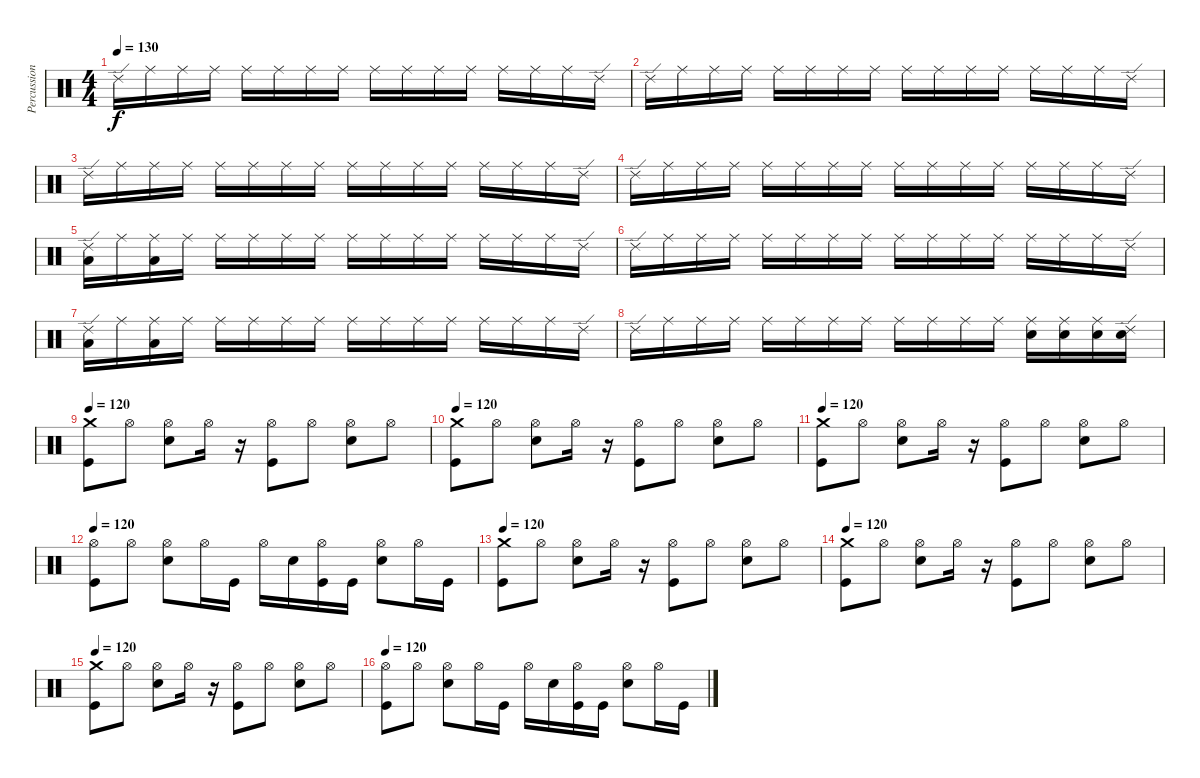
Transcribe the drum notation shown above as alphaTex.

\track ("Percussion" "Percussion") {instrument percussion}
\staff {score}
\articulation defaults
\ts (4 4)
\tempo 130
\clef neutral
\ks c "Ride (edge) 2".16{dy f} "Ride (middle)".16 "Ride (middle)".16 "Ride (middle)".16 "Ride (middle)".16 "Ride (middle)".16 "Ride (middle)".16 "Ride (middle)".16 "Ride (middle)".16 "Ride (middle)".16 "Ride (middle)".16 "Ride (middle)".16 "Ride (middle)".16 "Ride (middle)".16 "Ride (middle)".16 "Ride (edge) 2".16
|
"Ride (edge) 2".16 "Ride (middle)".16 "Ride (middle)".16 "Ride (middle)".16 "Ride (middle)".16 "Ride (middle)".16 "Ride (middle)".16 "Ride (middle)".16 "Ride (middle)".16 "Ride (middle)".16 "Ride (middle)".16 "Ride (middle)".16 "Ride (middle)".16 "Ride (middle)".16 "Ride (middle)".16 "Ride (edge) 2".16 |
"Ride (edge) 2".16 "Ride (middle)".16 "Ride (middle)".16 "Ride (middle)".16 "Ride (middle)".16 "Ride (middle)".16 "Ride (middle)".16 "Ride (middle)".16 "Ride (middle)".16 "Ride (middle)".16 "Ride (middle)".16 "Ride (middle)".16 "Ride (middle)".16 "Ride (middle)".16 "Ride (middle)".16 "Ride (edge) 2".16 |
"Ride (edge) 2".16 "Ride (middle)".16 "Ride (middle)".16 "Ride (middle)".16 "Ride (middle)".16 "Ride (middle)".16 "Ride (middle)".16 "Ride (middle)".16 "Ride (middle)".16 "Ride (middle)".16 "Ride (middle)".16 "Ride (middle)".16 "Ride (middle)".16 "Ride (middle)".16 "Ride (middle)".16 "Ride (edge) 2".16 |
("Low Floor Tom (hit)" "Ride (edge) 2").16 "Ride (middle)".16 ("Low Floor Tom (hit)" "Ride (middle)").16 "Ride (middle)".16 "Ride (middle)".16 "Ride (middle)".16 "Ride (middle)".16 "Ride (middle)".16 "Ride (middle)".16 "Ride (middle)".16 "Ride (middle)".16 "Ride (middle)".16 "Ride (middle)".16 "Ride (middle)".16 "Ride (middle)".16 "Ride (edge) 2".16 |
"Ride (edge) 2".16 "Ride (middle)".16 "Ride (middle)".16 "Ride (middle)".16 "Ride (middle)".16 "Ride (middle)".16 "Ride (middle)".16 "Ride (middle)".16 "Ride (middle)".16 "Ride (middle)".16 "Ride (middle)".16 "Ride (middle)".16 "Ride (middle)".16 "Ride (middle)".16 "Ride (middle)".16 "Ride (edge) 2".16 |
("Low Floor Tom (hit)" "Ride (edge) 2").16 "Ride (middle)".16 ("Low Floor Tom (hit)" "Ride (middle)").16 "Ride (middle)".16 "Ride (middle)".16 "Ride (middle)".16 "Ride (middle)".16 "Ride (middle)".16 "Ride (middle)".16 "Ride (middle)".16 "Ride (middle)".16 "Ride (middle)".16 "Ride (middle)".16 "Ride (middle)".16 "Ride (middle)".16 "Ride (edge) 2".16 |
"Ride (edge) 2".16 "Ride (middle)".16 "Ride (middle)".16 "Ride (middle)".16 "Ride (middle)".16 "Ride (middle)".16 "Ride (middle)".16 "Ride (middle)".16 "Ride (middle)".16 "Ride (middle)".16 "Ride (middle)".16 "Ride (middle)".16 ("Electric Snare (hit)" "Ride (middle)").16 ("Electric Snare (hit)" "Ride (middle)").16 ("Electric Snare (hit)" "Ride (middle)").16 ("Electric Snare (hit)" "Ride (edge) 2").16 |
\tempo 120
("Kick (hit)" "Crash medium (hit)").8 "Hi-Hat (open)".8 ("Hi-Hat (open)" "Electric Snare (hit)").8 "Hi-Hat (open)".16 r.16 ("Kick (hit)" "Hi-Hat (open)").8 "Hi-Hat (open)".8 ("Hi-Hat (open)" "Electric Snare (hit)").8 "Hi-Hat (open)".8 |
\tempo 120
("Kick (hit)" "Crash medium (hit)").8 "Hi-Hat (open)".8 ("Hi-Hat (open)" "Electric Snare (hit)").8 "Hi-Hat (open)".16 r.16 ("Kick (hit)" "Hi-Hat (open)").8 "Hi-Hat (open)".8 ("Hi-Hat (open)" "Electric Snare (hit)").8 "Hi-Hat (open)".8 |
\tempo 120
("Kick (hit)" "Crash medium (hit)").8 "Hi-Hat (open)".8 ("Hi-Hat (open)" "Electric Snare (hit)").8 "Hi-Hat (open)".16 r.16 ("Kick (hit)" "Hi-Hat (open)").8 "Hi-Hat (open)".8 ("Hi-Hat (open)" "Electric Snare (hit)").8 "Hi-Hat (open)".8 |
\tempo 120
("Kick (hit)" "Hi-Hat (open)").8 "Hi-Hat (open)".8 ("Hi-Hat (open)" "Electric Snare (hit)").8 "Hi-Hat (open)".16 "Kick (hit)".16 "Hi-Hat (open)".16 "Electric Snare (hit)".16 ("Kick (hit)" "Hi-Hat (open)").16 "Kick (hit)".16 ("Hi-Hat (open)" "Electric Snare (hit)").8 "Hi-Hat (open)".16 "Kick (hit)".16 |
\tempo 120
("Kick (hit)" "Crash medium (hit)").8 "Hi-Hat (open)".8 ("Hi-Hat (open)" "Electric Snare (hit)").8 "Hi-Hat (open)".16 r.16 ("Kick (hit)" "Hi-Hat (open)").8 "Hi-Hat (open)".8 ("Hi-Hat (open)" "Electric Snare (hit)").8 "Hi-Hat (open)".8 |
\tempo 120
("Kick (hit)" "Crash medium (hit)").8 "Hi-Hat (open)".8 ("Hi-Hat (open)" "Electric Snare (hit)").8 "Hi-Hat (open)".16 r.16 ("Kick (hit)" "Hi-Hat (open)").8 "Hi-Hat (open)".8 ("Hi-Hat (open)" "Electric Snare (hit)").8 "Hi-Hat (open)".8 |
\tempo 120
("Kick (hit)" "Crash medium (hit)").8 "Hi-Hat (open)".8 ("Hi-Hat (open)" "Electric Snare (hit)").8 "Hi-Hat (open)".16 r.16 ("Kick (hit)" "Hi-Hat (open)").8 "Hi-Hat (open)".8 ("Hi-Hat (open)" "Electric Snare (hit)").8 "Hi-Hat (open)".8 |
\tempo 120
("Kick (hit)" "Hi-Hat (open)").8 "Hi-Hat (open)".8 ("Hi-Hat (open)" "Electric Snare (hit)").8 "Hi-Hat (open)".16 "Kick (hit)".16 "Hi-Hat (open)".16 "Electric Snare (hit)".16 ("Kick (hit)" "Hi-Hat (open)").16 "Kick (hit)".16 ("Hi-Hat (open)" "Electric Snare (hit)").8 "Hi-Hat (open)".16 "Kick (hit)".16
